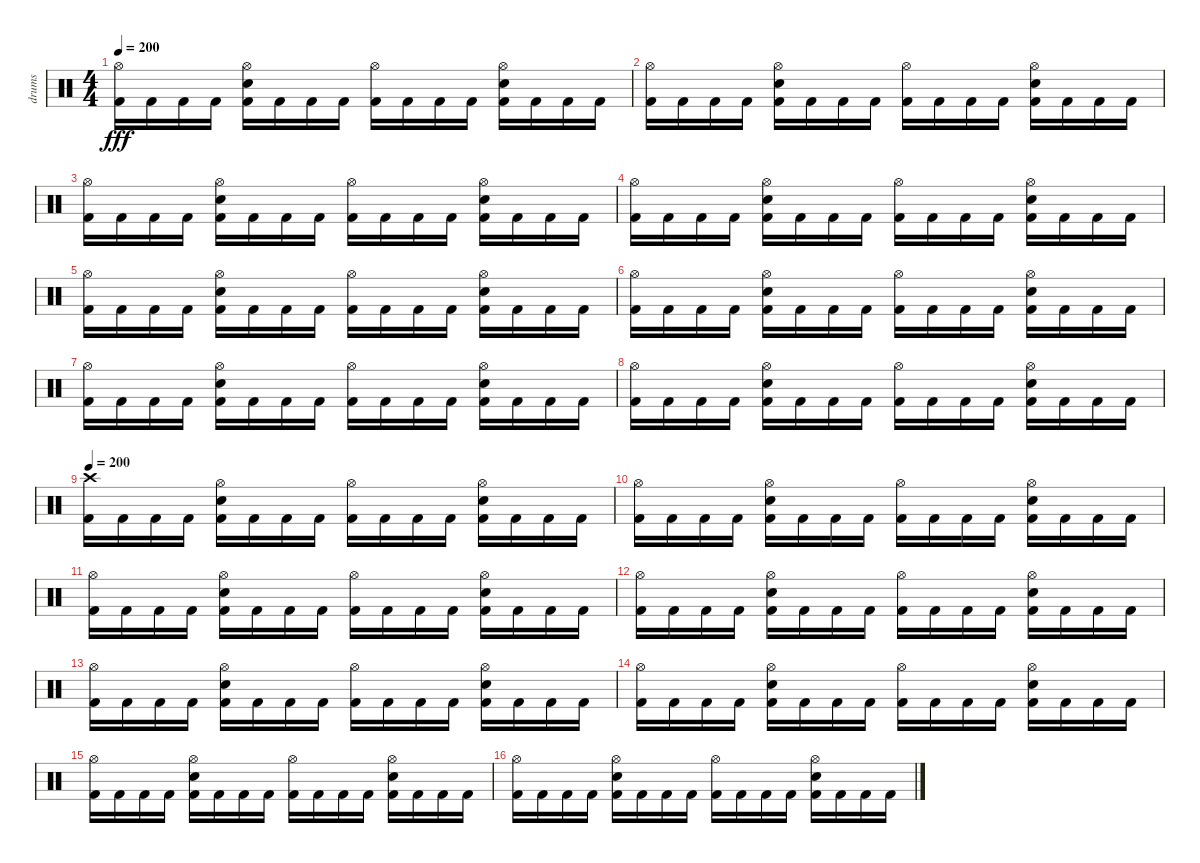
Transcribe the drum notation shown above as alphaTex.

\track ("drums" "drums") {instrument percussion}
\staff {score}
\articulation defaults
\ts (4 4)
\tempo 200
\clef neutral
\ks c
("Hi-Hat (open)" "Kick (hit) 2").16{dy fff} "Kick (hit) 2".16 "Kick (hit) 2".16 "Kick (hit) 2".16 ("Hi-Hat (open)" "Snare (hit) 2" "Kick (hit) 2").16 "Kick (hit) 2".16 "Kick (hit) 2".16 "Kick (hit) 2".16 ("Hi-Hat (open)" "Kick (hit) 2").16 "Kick (hit) 2".16 "Kick (hit) 2".16 "Kick (hit) 2".16 ("Hi-Hat (open)" "Snare (hit) 2" "Kick (hit) 2").16 "Kick (hit) 2".16 "Kick (hit) 2".16 "Kick (hit) 2".16 |
("Hi-Hat (open)" "Kick (hit) 2").16 "Kick (hit) 2".16 "Kick (hit) 2".16 "Kick (hit) 2".16 ("Hi-Hat (open)" "Snare (hit) 2" "Kick (hit) 2").16 "Kick (hit) 2".16 "Kick (hit) 2".16 "Kick (hit) 2".16 ("Hi-Hat (open)" "Kick (hit) 2").16 "Kick (hit) 2".16 "Kick (hit) 2".16 "Kick (hit) 2".16 ("Hi-Hat (open)" "Snare (hit) 2" "Kick (hit) 2").16 "Kick (hit) 2".16 "Kick (hit) 2".16 "Kick (hit) 2".16 |
("Hi-Hat (open)" "Kick (hit) 2").16 "Kick (hit) 2".16 "Kick (hit) 2".16 "Kick (hit) 2".16 ("Hi-Hat (open)" "Snare (hit) 2" "Kick (hit) 2").16 "Kick (hit) 2".16 "Kick (hit) 2".16 "Kick (hit) 2".16 ("Hi-Hat (open)" "Kick (hit) 2").16 "Kick (hit) 2".16 "Kick (hit) 2".16 "Kick (hit) 2".16 ("Hi-Hat (open)" "Snare (hit) 2" "Kick (hit) 2").16 "Kick (hit) 2".16 "Kick (hit) 2".16 "Kick (hit) 2".16 |
("Hi-Hat (open)" "Kick (hit) 2").16 "Kick (hit) 2".16 "Kick (hit) 2".16 "Kick (hit) 2".16 ("Hi-Hat (open)" "Snare (hit) 2" "Kick (hit) 2").16 "Kick (hit) 2".16 "Kick (hit) 2".16 "Kick (hit) 2".16 ("Hi-Hat (open)" "Kick (hit) 2").16 "Kick (hit) 2".16 "Kick (hit) 2".16 "Kick (hit) 2".16 ("Hi-Hat (open)" "Snare (hit) 2" "Kick (hit) 2").16 "Kick (hit) 2".16 "Kick (hit) 2".16 "Kick (hit) 2".16 |
("Hi-Hat (open)" "Kick (hit) 2").16 "Kick (hit) 2".16 "Kick (hit) 2".16 "Kick (hit) 2".16 ("Hi-Hat (open)" "Snare (hit) 2" "Kick (hit) 2").16 "Kick (hit) 2".16 "Kick (hit) 2".16 "Kick (hit) 2".16 ("Hi-Hat (open)" "Kick (hit) 2").16 "Kick (hit) 2".16 "Kick (hit) 2".16 "Kick (hit) 2".16 ("Hi-Hat (open)" "Snare (hit) 2" "Kick (hit) 2").16 "Kick (hit) 2".16 "Kick (hit) 2".16 "Kick (hit) 2".16 |
("Hi-Hat (open)" "Kick (hit) 2").16 "Kick (hit) 2".16 "Kick (hit) 2".16 "Kick (hit) 2".16 ("Hi-Hat (open)" "Snare (hit) 2" "Kick (hit) 2").16 "Kick (hit) 2".16 "Kick (hit) 2".16 "Kick (hit) 2".16 ("Hi-Hat (open)" "Kick (hit) 2").16 "Kick (hit) 2".16 "Kick (hit) 2".16 "Kick (hit) 2".16 ("Hi-Hat (open)" "Snare (hit) 2" "Kick (hit) 2").16 "Kick (hit) 2".16 "Kick (hit) 2".16 "Kick (hit) 2".16 |
("Hi-Hat (open)" "Kick (hit) 2").16 "Kick (hit) 2".16 "Kick (hit) 2".16 "Kick (hit) 2".16 ("Hi-Hat (open)" "Snare (hit) 2" "Kick (hit) 2").16 "Kick (hit) 2".16 "Kick (hit) 2".16 "Kick (hit) 2".16 ("Hi-Hat (open)" "Kick (hit) 2").16 "Kick (hit) 2".16 "Kick (hit) 2".16 "Kick (hit) 2".16 ("Hi-Hat (open)" "Snare (hit) 2" "Kick (hit) 2").16 "Kick (hit) 2".16 "Kick (hit) 2".16 "Kick (hit) 2".16 |
("Hi-Hat (open)" "Kick (hit) 2").16 "Kick (hit) 2".16 "Kick (hit) 2".16 "Kick (hit) 2".16 ("Hi-Hat (open)" "Snare (hit) 2" "Kick (hit) 2").16 "Kick (hit) 2".16 "Kick (hit) 2".16 "Kick (hit) 2".16 ("Hi-Hat (open)" "Kick (hit) 2").16 "Kick (hit) 2".16 "Kick (hit) 2".16 "Kick (hit) 2".16 ("Hi-Hat (open)" "Snare (hit) 2" "Kick (hit) 2").16 "Kick (hit) 2".16 "Kick (hit) 2".16 "Kick (hit) 2".16 |
\tempo 200
("Crash high (hit)" "Kick (hit) 2").16 "Kick (hit) 2".16 "Kick (hit) 2".16 "Kick (hit) 2".16 ("Hi-Hat (open)" "Snare (hit) 2" "Kick (hit) 2").16 "Kick (hit) 2".16 "Kick (hit) 2".16 "Kick (hit) 2".16 ("Hi-Hat (open)" "Kick (hit) 2").16 "Kick (hit) 2".16 "Kick (hit) 2".16 "Kick (hit) 2".16 ("Hi-Hat (open)" "Snare (hit) 2" "Kick (hit) 2").16 "Kick (hit) 2".16 "Kick (hit) 2".16 "Kick (hit) 2".16 |
("Hi-Hat (open)" "Kick (hit) 2").16 "Kick (hit) 2".16 "Kick (hit) 2".16 "Kick (hit) 2".16 ("Hi-Hat (open)" "Snare (hit) 2" "Kick (hit) 2").16 "Kick (hit) 2".16 "Kick (hit) 2".16 "Kick (hit) 2".16 ("Hi-Hat (open)" "Kick (hit) 2").16 "Kick (hit) 2".16 "Kick (hit) 2".16 "Kick (hit) 2".16 ("Hi-Hat (open)" "Snare (hit) 2" "Kick (hit) 2").16 "Kick (hit) 2".16 "Kick (hit) 2".16 "Kick (hit) 2".16 |
("Hi-Hat (open)" "Kick (hit) 2").16 "Kick (hit) 2".16 "Kick (hit) 2".16 "Kick (hit) 2".16 ("Hi-Hat (open)" "Snare (hit) 2" "Kick (hit) 2").16 "Kick (hit) 2".16 "Kick (hit) 2".16 "Kick (hit) 2".16 ("Hi-Hat (open)" "Kick (hit) 2").16 "Kick (hit) 2".16 "Kick (hit) 2".16 "Kick (hit) 2".16 ("Hi-Hat (open)" "Snare (hit) 2" "Kick (hit) 2").16 "Kick (hit) 2".16 "Kick (hit) 2".16 "Kick (hit) 2".16 |
("Hi-Hat (open)" "Kick (hit) 2").16 "Kick (hit) 2".16 "Kick (hit) 2".16 "Kick (hit) 2".16 ("Hi-Hat (open)" "Snare (hit) 2" "Kick (hit) 2").16 "Kick (hit) 2".16 "Kick (hit) 2".16 "Kick (hit) 2".16 ("Hi-Hat (open)" "Kick (hit) 2").16 "Kick (hit) 2".16 "Kick (hit) 2".16 "Kick (hit) 2".16 ("Hi-Hat (open)" "Snare (hit) 2" "Kick (hit) 2").16 "Kick (hit) 2".16 "Kick (hit) 2".16 "Kick (hit) 2".16 |
("Hi-Hat (open)" "Kick (hit) 2").16 "Kick (hit) 2".16 "Kick (hit) 2".16 "Kick (hit) 2".16 ("Hi-Hat (open)" "Snare (hit) 2" "Kick (hit) 2").16 "Kick (hit) 2".16 "Kick (hit) 2".16 "Kick (hit) 2".16 ("Hi-Hat (open)" "Kick (hit) 2").16 "Kick (hit) 2".16 "Kick (hit) 2".16 "Kick (hit) 2".16 ("Hi-Hat (open)" "Snare (hit) 2" "Kick (hit) 2").16 "Kick (hit) 2".16 "Kick (hit) 2".16 "Kick (hit) 2".16 |
("Hi-Hat (open)" "Kick (hit) 2").16 "Kick (hit) 2".16 "Kick (hit) 2".16 "Kick (hit) 2".16 ("Hi-Hat (open)" "Snare (hit) 2" "Kick (hit) 2").16 "Kick (hit) 2".16 "Kick (hit) 2".16 "Kick (hit) 2".16 ("Hi-Hat (open)" "Kick (hit) 2").16 "Kick (hit) 2".16 "Kick (hit) 2".16 "Kick (hit) 2".16 ("Hi-Hat (open)" "Snare (hit) 2" "Kick (hit) 2").16 "Kick (hit) 2".16 "Kick (hit) 2".16 "Kick (hit) 2".16 |
("Hi-Hat (open)" "Kick (hit) 2").16 "Kick (hit) 2".16 "Kick (hit) 2".16 "Kick (hit) 2".16 ("Hi-Hat (open)" "Snare (hit) 2" "Kick (hit) 2").16 "Kick (hit) 2".16 "Kick (hit) 2".16 "Kick (hit) 2".16 ("Hi-Hat (open)" "Kick (hit) 2").16 "Kick (hit) 2".16 "Kick (hit) 2".16 "Kick (hit) 2".16 ("Hi-Hat (open)" "Snare (hit) 2" "Kick (hit) 2").16 "Kick (hit) 2".16 "Kick (hit) 2".16 "Kick (hit) 2".16 |
("Hi-Hat (open)" "Kick (hit) 2").16 "Kick (hit) 2".16 "Kick (hit) 2".16 "Kick (hit) 2".16 ("Hi-Hat (open)" "Snare (hit) 2" "Kick (hit) 2").16 "Kick (hit) 2".16 "Kick (hit) 2".16 "Kick (hit) 2".16 ("Hi-Hat (open)" "Kick (hit) 2").16 "Kick (hit) 2".16 "Kick (hit) 2".16 "Kick (hit) 2".16 ("Hi-Hat (open)" "Snare (hit) 2" "Kick (hit) 2").16 "Kick (hit) 2".16 "Kick (hit) 2".16 "Kick (hit) 2".16
